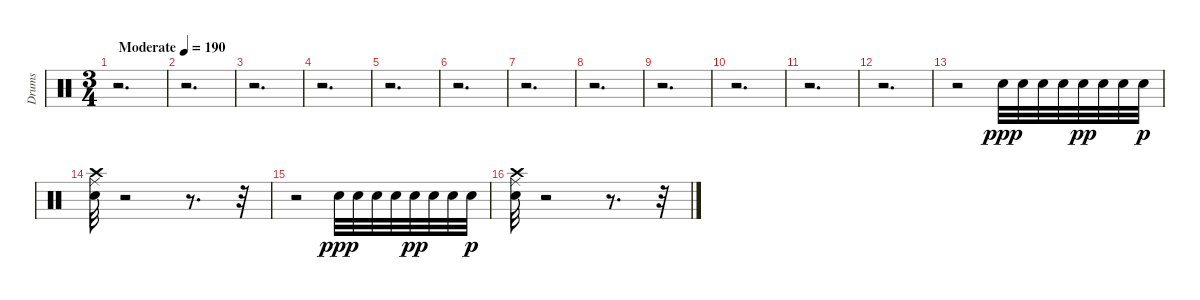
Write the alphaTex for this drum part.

\track ("Drums" "Drums") {instrument percussion}
\staff {score}
\articulation defaults
\ts (3 4)
\tempo (190 "Moderate")
\clef neutral
\ks c
r.2{d dy ppp} |
r.2{d} |
r.2{d} |
r.2{d} |
r.2{d} |
r.2{d} |
r.2{d} |
r.2{d} |
r.2{d} |
r.2{d} |
r.2{d} |
r.2{d} |
r.2 "Electric Snare (hit)".32 "Electric Snare (hit)".32 "Electric Snare (hit)".32 "Electric Snare (hit)".32 "Electric Snare (hit)".32{dy pp} "Electric Snare (hit)".32 "Electric Snare (hit)".32 "Electric Snare (hit)".32{dy p} |
("Crash high (hit)" "Ride (middle)" "Electric Snare (hit)").32 r.2 r.8{d} r.32 |
r.2 "Electric Snare (hit)".32{dy ppp} "Electric Snare (hit)".32 "Electric Snare (hit)".32 "Electric Snare (hit)".32 "Electric Snare (hit)".32{dy pp} "Electric Snare (hit)".32 "Electric Snare (hit)".32 "Electric Snare (hit)".32{dy p} |
("Crash high (hit)" "Ride (middle)" "Electric Snare (hit)").32 r.2 r.8{d} r.32
